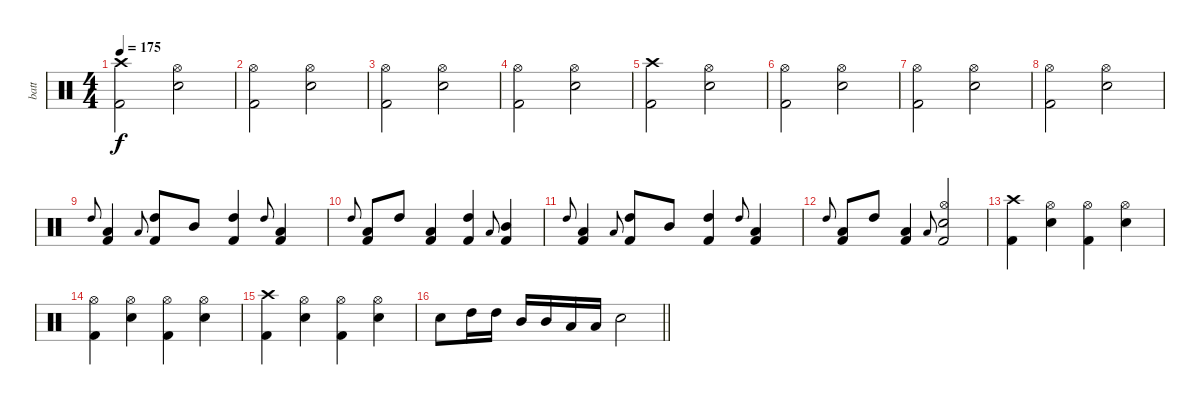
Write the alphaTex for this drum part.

\track ("batt" "batt") {instrument percussion}
\staff {score}
\articulation defaults
\ts (4 4)
\tempo 175
\clef neutral
\ks c
("Crash high (hit)" "Kick (hit) 2").2{dy f} ("Hi-Hat (open)" "Electric Snare (hit)").2 |
("Hi-Hat (open)" "Kick (hit) 2").2 ("Hi-Hat (open)" "Electric Snare (hit)").2 |
("Hi-Hat (open)" "Kick (hit) 2").2 ("Hi-Hat (open)" "Electric Snare (hit)").2 |
("Hi-Hat (open)" "Kick (hit) 2").2 ("Hi-Hat (open)" "Electric Snare (hit)").2 |
("Crash high (hit)" "Kick (hit) 2").2 ("Hi-Hat (open)" "Electric Snare (hit)").2 |
("Hi-Hat (open)" "Kick (hit) 2").2 ("Hi-Hat (open)" "Electric Snare (hit)").2 |
("Hi-Hat (open)" "Kick (hit) 2").2 ("Hi-Hat (open)" "Electric Snare (hit)").2 |
("Hi-Hat (open)" "Kick (hit) 2").2 ("Hi-Hat (open)" "Electric Snare (hit)").2 |
"High Tom (hit)".8{gr onbeat} ("Low Tom (hit)" "Kick (hit) 2").4 "Low Tom (hit)".8{gr onbeat} ("High Tom (hit)" "Kick (hit) 2").8 "Mid Tom (hit)".8 ("High Tom (hit)" "Kick (hit) 2").4 "High Tom (hit)".8{gr onbeat} ("Low Tom (hit)" "Kick (hit) 2").4 |
"High Tom (hit)".8{gr onbeat} ("Low Tom (hit)" "Kick (hit) 2").8 "High Tom (hit)".8 ("Low Tom (hit)" "Kick (hit) 2").4 ("High Tom (hit)" "Kick (hit) 2").4 "Low Tom (hit)".8{gr onbeat} ("Mid Tom (hit)" "Kick (hit) 2").4 |
"High Tom (hit)".8{gr onbeat} ("Low Tom (hit)" "Kick (hit) 2").4 "Low Tom (hit)".8{gr onbeat} ("High Tom (hit)" "Kick (hit) 2").8 "Mid Tom (hit)".8 ("High Tom (hit)" "Kick (hit) 2").4 "High Tom (hit)".8{gr onbeat} ("Low Tom (hit)" "Kick (hit) 2").4 |
"High Tom (hit)".8{gr onbeat} ("Low Tom (hit)" "Kick (hit) 2").8 "High Tom (hit)".8 ("Low Tom (hit)" "Kick (hit) 2").4 "Low Tom (hit)".8{gr onbeat} ("Hi-Hat (open)" "Electric Snare (hit)" "Kick (hit) 2").2 |
("Crash high (hit)" "Kick (hit) 2").4 ("Hi-Hat (open)" "Electric Snare (hit)").4 ("Hi-Hat (open)" "Kick (hit) 2").4 ("Hi-Hat (open)" "Electric Snare (hit)").4 |
("Hi-Hat (open)" "Kick (hit) 2").4 ("Hi-Hat (open)" "Electric Snare (hit)").4 ("Hi-Hat (open)" "Kick (hit) 2").4 ("Hi-Hat (open)" "Electric Snare (hit)").4 |
("Crash high (hit)" "Kick (hit) 2").4 ("Hi-Hat (open)" "Electric Snare (hit)").4 ("Hi-Hat (open)" "Kick (hit) 2").4 ("Hi-Hat (open)" "Electric Snare (hit)").4 |
\barLineRight lightlight "Electric Snare (hit)".8 "High Tom (hit)".16 "High Tom (hit)".16 "Mid Tom (hit)".16 "Mid Tom (hit)".16 "Low Tom (hit)".16 "Low Tom (hit)".16 "Electric Snare (hit)".2
